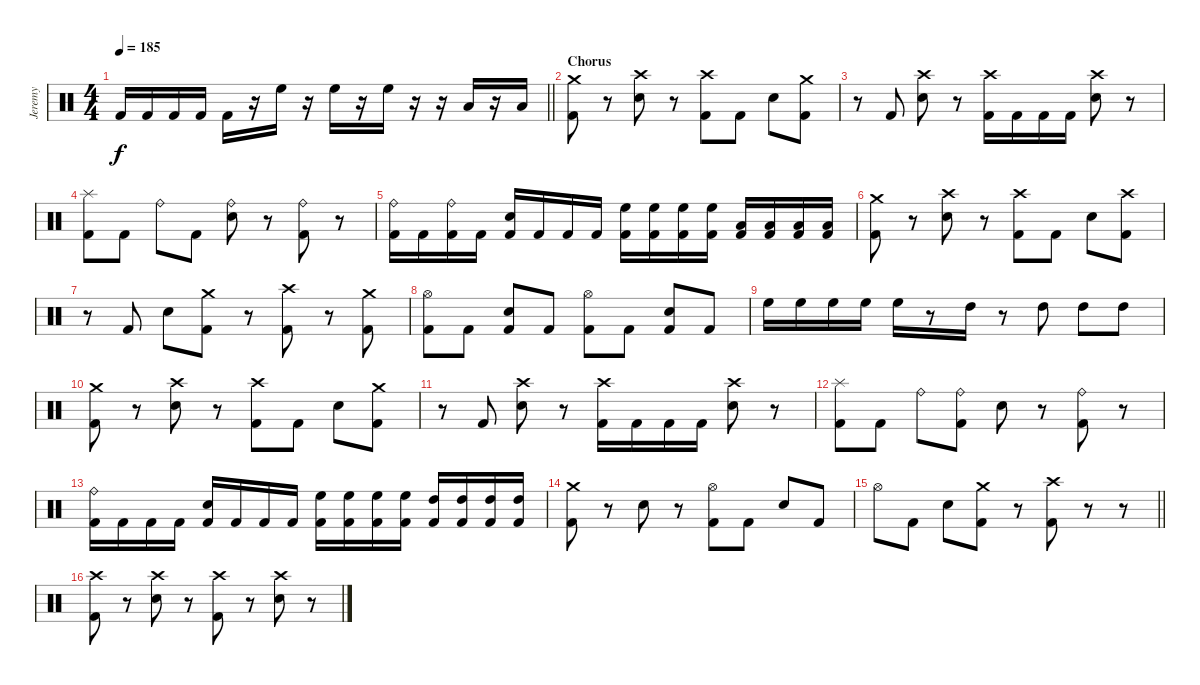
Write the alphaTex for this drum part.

\track ("Jeremy" "Jeremy") {instrument percussion}
\staff {score}
\articulation defaults
\ts (4 4)
\tempo 185
\clef neutral
\barLineRight lightlight
\ks c "Kick (hit) 2".16{dy f} "Kick (hit) 2".16 "Kick (hit) 2".16 "Kick (hit) 2".16 "Kick (hit) 2".16
r.16 "High Floor Tom (hit)".16 r.16 "High Floor Tom (hit)".16 r.16 "High Floor Tom (hit)".16 r.16 r.16 "Low Tom (hit)".16 r.16 "Low Tom (hit)".16 |
\section ("" "Chorus")
("Crash medium (hit)" "Kick (hit) 2").8 r.8 ("Crash high (hit)" "Snare (hit) 2").8 r.8 ("Crash high (hit)" "Kick (hit) 2").8 "Kick (hit) 2".8 "Snare (hit) 2".8 ("Crash medium (hit)" "Kick (hit) 2").8 |
r.8 "Kick (hit) 2".8 ("Crash high (hit)" "Snare (hit) 2").8 r.8 ("Crash high (hit)" "Kick (hit) 2").16 "Kick (hit) 2".16 "Kick (hit) 2".16 "Kick (hit) 2".16 ("Crash high (hit)" "Snare (hit) 2").8 r.8 |
("Splash (hit)" "Kick (hit) 2").8 "Kick (hit) 2".8 "Ride (bell)".8 "Kick (hit) 2".8 ("Ride (bell)" "Snare (hit) 2").8 r.8 ("Ride (bell)" "Kick (hit) 2").8 r.8 |
("Ride (bell)" "Kick (hit) 2").16 "Kick (hit) 2".16 ("Ride (bell)" "Kick (hit) 2").16 "Kick (hit) 2".16 ("Snare (hit) 2" "Kick (hit) 2").16 "Kick (hit) 2".16 "Kick (hit) 2".16 "Kick (hit) 2".16 ("High Floor Tom (hit)" "Kick (hit) 2").16 ("High Floor Tom (hit)" "Kick (hit) 2").16 ("High Floor Tom (hit)" "Kick (hit) 2").16 ("High Floor Tom (hit)" "Kick (hit) 2").16 ("Low Tom (hit)" "Kick (hit) 2").16 ("Low Tom (hit)" "Kick (hit) 2").16 ("Low Tom (hit)" "Kick (hit) 2").16 ("Low Tom (hit)" "Kick (hit) 2").16 |
("Crash medium (hit)" "Kick (hit) 2").8 r.8 ("Crash high (hit)" "Snare (hit) 2").8 r.8 ("Crash high (hit)" "Kick (hit) 2").8 "Kick (hit) 2".8 "Snare (hit) 2".8 ("Crash high (hit)" "Kick (hit) 2").8 |
r.8 "Kick (hit) 2".8 "Snare (hit) 2".8 ("Crash medium (hit)" "Kick (hit) 2").8 r.8 ("Crash high (hit)" "Kick (hit) 2").8 r.8 ("Crash medium (hit)" "Kick (hit) 2").8 |
("Hi-Hat (open)" "Kick (hit) 2").8 "Kick (hit) 2".8 ("Snare (hit) 2" "Kick (hit) 2").8 "Kick (hit) 2".8 ("Hi-Hat (open)" "Kick (hit) 2").8 "Kick (hit) 2".8 ("Snare (hit) 2" "Kick (hit) 2").8 "Kick (hit) 2".8 |
"High Floor Tom (hit)".16 "High Floor Tom (hit)".16 "High Floor Tom (hit)".16 "High Floor Tom (hit)".16 "High Floor Tom (hit)".16 r.8 "High Tom (hit)".16 r.8 "High Tom (hit)".8 "High Tom (hit)".8 "High Tom (hit)".8 |
("Crash medium (hit)" "Kick (hit) 2").8 r.8 ("Crash high (hit)" "Snare (hit) 2").8 r.8 ("Crash high (hit)" "Kick (hit) 2").8 "Kick (hit) 2".8 "Snare (hit) 2".8 ("Crash medium (hit)" "Kick (hit) 2").8 |
r.8 "Kick (hit) 2".8 ("Crash high (hit)" "Snare (hit) 2").8 r.8 ("Crash high (hit)" "Kick (hit) 2").16 "Kick (hit) 2".16 "Kick (hit) 2".16 "Kick (hit) 2".16 ("Crash high (hit)" "Snare (hit) 2").8 r.8 |
("Splash (hit)" "Kick (hit) 2").8 "Kick (hit) 2".8 "Ride (bell)".8 ("Ride (bell)" "Kick (hit) 2").8 "Snare (hit) 2".8 r.8 ("Ride (bell)" "Kick (hit) 2").8 r.8 |
("Ride (bell)" "Kick (hit) 2").16 "Kick (hit) 2".16 "Kick (hit) 2".16 "Kick (hit) 2".16 ("Snare (hit) 2" "Kick (hit) 2").16 "Kick (hit) 2".16 "Kick (hit) 2".16 "Kick (hit) 2".16 ("High Floor Tom (hit)" "Kick (hit) 2").16 ("High Floor Tom (hit)" "Kick (hit) 2").16 ("High Floor Tom (hit)" "Kick (hit) 2").16 ("High Floor Tom (hit)" "Kick (hit) 2").16 ("High Tom (hit)" "Kick (hit) 2").16 ("High Tom (hit)" "Kick (hit) 2").16 ("High Tom (hit)" "Kick (hit) 2").16 ("High Tom (hit)" "Kick (hit) 2").16 |
("Crash medium (hit)" "Kick (hit) 2").8 r.8 "Snare (hit) 2".8 r.8 ("Hi-Hat (open)" "Kick (hit) 2").8 "Kick (hit) 2".8 "Snare (hit) 2".8 "Kick (hit) 2".8 |
\barLineRight lightlight "Hi-Hat (open)".8 "Kick (hit) 2".8 "Snare (hit) 2".8
("Crash medium (hit)" "Kick (hit) 2").8 r.8 ("Crash high (hit)" "Kick (hit) 2").8 r.8 r.8 |
("Crash high (hit)" "Kick (hit) 2").8 r.8 ("Crash high (hit)" "Snare (hit) 2").8 r.8 ("Crash high (hit)" "Kick (hit) 2").8 r.8 ("Crash high (hit)" "Snare (hit) 2").8 r.8
